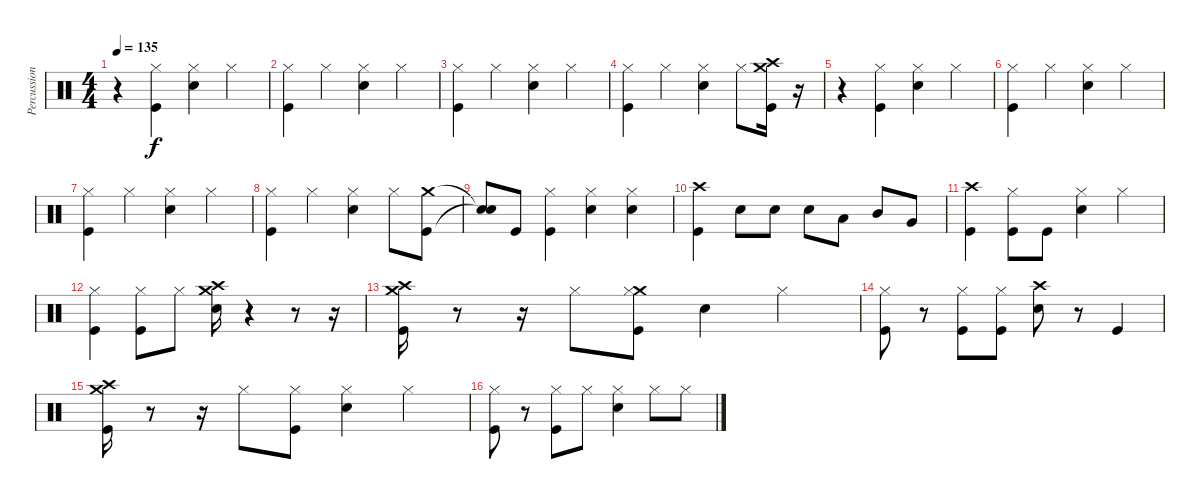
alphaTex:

\track ("Percussions" "Percussion") {instrument percussion}
\staff {score}
\articulation defaults
\ts (4 4)
\tempo 135
\clef neutral
\ks c
r.4{dy f} ("Kick (hit)" "Hi-Hat (closed)").4 ("Snare (hit) 2" "Hi-Hat (closed)").4 "Hi-Hat (closed)".4 |
("Kick (hit)" "Hi-Hat (closed)").4 "Hi-Hat (closed)".4 ("Snare (hit) 2" "Hi-Hat (closed)").4 "Hi-Hat (closed)".4 |
("Kick (hit)" "Hi-Hat (closed)").4 "Hi-Hat (closed)".4 ("Snare (hit) 2" "Hi-Hat (closed)").4 "Hi-Hat (closed)".4 |
("Kick (hit)" "Hi-Hat (closed)").4 "Hi-Hat (closed)".4 ("Snare (hit) 2" "Hi-Hat (closed)").4 "Hi-Hat (closed)".8 ("Crash medium (hit)" "Crash high (hit)" "Kick (hit)").16 r.16 |
r.4 ("Kick (hit)" "Hi-Hat (closed)").4 ("Snare (hit) 2" "Hi-Hat (closed)").4 "Hi-Hat (closed)".4 |
("Kick (hit)" "Hi-Hat (closed)").4 "Hi-Hat (closed)".4 ("Snare (hit) 2" "Hi-Hat (closed)").4 "Hi-Hat (closed)".4 |
("Kick (hit)" "Hi-Hat (closed)").4 "Hi-Hat (closed)".4 ("Snare (hit) 2" "Hi-Hat (closed)").4 "Hi-Hat (closed)".4 |
("Kick (hit)" "Hi-Hat (closed)").4 "Hi-Hat (closed)".4 ("Snare (hit) 2" "Hi-Hat (closed)").4 "Hi-Hat (closed)".8 ("Kick (hit)" "Crash medium (hit)").8 |
("Snare (hit)"{t} "Snare (hit)"{t}).8 "Kick (hit)".8 ("Kick (hit)" "Hi-Hat (closed)").4 ("Snare (hit) 2" "Hi-Hat (closed)").4 ("Snare (hit) 2" "Hi-Hat (closed)").4 |
("Crash high (hit)" "Kick (hit)").4 "Snare (hit) 2".8 "Snare (hit) 2".8 "Snare (hit) 2".8 "Low Tom (hit)".8 "Mid Tom (hit)".8 "Very Low Tom (hit)".8 |
("Kick (hit)" "Crash high (hit)").4 ("Hi-Hat (closed)" "Kick (hit)").8 "Kick (hit)".8 ("Hi-Hat (closed)" "Snare (hit) 2").4 "Hi-Hat (closed)".4 |
("Hi-Hat (closed)" "Kick (hit)").4 ("Hi-Hat (closed)" "Kick (hit)").8 "Hi-Hat (closed)".8 ("Crash medium (hit)" "Crash high (hit)" "Snare (hit) 2").16 r.4 r.8 r.16 |
("Crash medium (hit)" "Crash high (hit)" "Kick (hit)").16 r.8 r.16 "Hi-Hat (closed)".8 ("Crash medium (hit)" "Kick (hit)" "Hi-Hat (closed)").8 "Snare (hit) 2".4 "Hi-Hat (closed)".4 |
("Hi-Hat (closed)" "Kick (hit)").8 r.8 ("Kick (hit)" "Hi-Hat (closed)").8 ("Hi-Hat (closed)" "Kick (hit)").8 ("Crash high (hit)" "Snare (hit) 2").8 r.8 "Kick (hit)".4 |
("Crash medium (hit)" "Kick (hit)" "Crash high (hit)").16 r.8 r.16 "Hi-Hat (closed)".8 ("Kick (hit)" "Hi-Hat (closed)").8 ("Hi-Hat (closed)" "Snare (hit) 2").4 "Hi-Hat (closed)".4 |
("Hi-Hat (closed)" "Kick (hit)").8 r.8 ("Hi-Hat (closed)" "Kick (hit)").8 "Hi-Hat (closed)".8 ("Hi-Hat (closed)" "Snare (hit) 2").4 "Hi-Hat (closed)".8 "Hi-Hat (closed)".8
